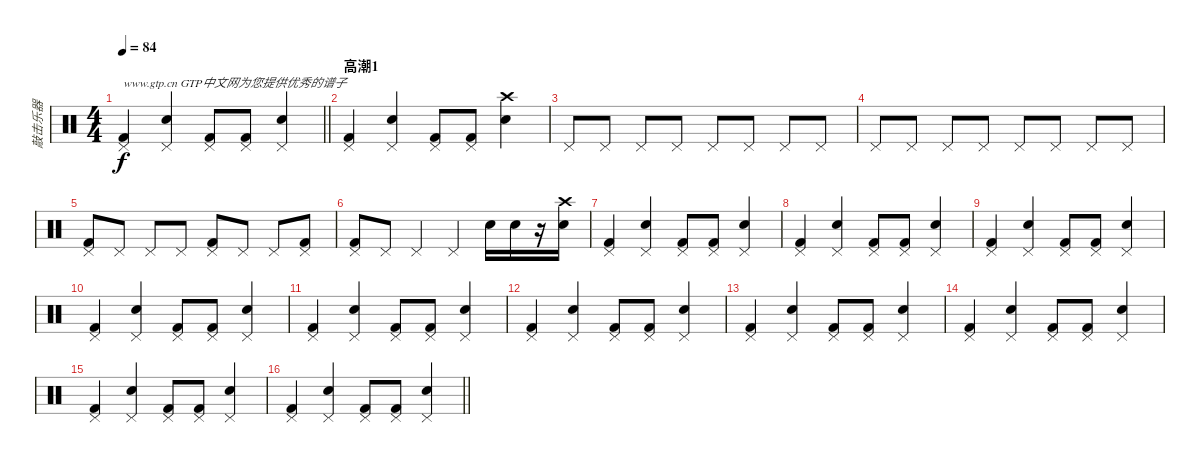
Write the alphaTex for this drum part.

\track ("敲击乐器" "敲击乐器") {instrument percussion}
\staff {score}
\articulation defaults
\ts (4 4)
\tempo 84
\clef neutral
\barLineRight lightlight
\ks c
("Kick (hit) 2" "Pedal Hi-Hat (hit)").4{txt "www.gtp.cn GTP中文网为您提供优秀的谱子" dy f} ("Snare (hit) 2" "Pedal Hi-Hat (hit)").4 ("Kick (hit) 2" "Pedal Hi-Hat (hit)").8 ("Kick (hit) 2" "Pedal Hi-Hat (hit)").8 ("Snare (hit) 2" "Pedal Hi-Hat (hit)").4 |
\section ("" "高潮1")
("Kick (hit) 2" "Pedal Hi-Hat (hit)").4 ("Snare (hit) 2" "Pedal Hi-Hat (hit)").4 ("Kick (hit) 2" "Pedal Hi-Hat (hit)").8 ("Kick (hit) 2" "Pedal Hi-Hat (hit)").8 ("Snare (hit) 2" "Crash high (hit)").4 |
"Pedal Hi-Hat (hit)".8 "Pedal Hi-Hat (hit)".8 "Pedal Hi-Hat (hit)".8 "Pedal Hi-Hat (hit)".8 "Pedal Hi-Hat (hit)".8 "Pedal Hi-Hat (hit)".8 "Pedal Hi-Hat (hit)".8 "Pedal Hi-Hat (hit)".8 |
"Pedal Hi-Hat (hit)".8 "Pedal Hi-Hat (hit)".8 "Pedal Hi-Hat (hit)".8 "Pedal Hi-Hat (hit)".8 "Pedal Hi-Hat (hit)".8 "Pedal Hi-Hat (hit)".8 "Pedal Hi-Hat (hit)".8 "Pedal Hi-Hat (hit)".8 |
("Kick (hit) 2" "Pedal Hi-Hat (hit)").8 "Pedal Hi-Hat (hit)".8 "Pedal Hi-Hat (hit)".8 "Pedal Hi-Hat (hit)".8 ("Kick (hit) 2" "Pedal Hi-Hat (hit)").8 "Pedal Hi-Hat (hit)".8 "Pedal Hi-Hat (hit)".8 ("Kick (hit) 2" "Pedal Hi-Hat (hit)").8 |
("Kick (hit) 2" "Pedal Hi-Hat (hit)").8 "Pedal Hi-Hat (hit)".8 "Pedal Hi-Hat (hit)".4 "Pedal Hi-Hat (hit)".4 "Snare (hit) 2".16 "Snare (hit) 2".16 r.16 ("Snare (hit) 2" "Crash high (hit)").16 |
("Kick (hit) 2" "Pedal Hi-Hat (hit)").4 ("Snare (hit) 2" "Pedal Hi-Hat (hit)").4 ("Kick (hit) 2" "Pedal Hi-Hat (hit)").8 ("Kick (hit) 2" "Pedal Hi-Hat (hit)").8 ("Snare (hit) 2" "Pedal Hi-Hat (hit)").4 |
("Kick (hit) 2" "Pedal Hi-Hat (hit)").4 ("Snare (hit) 2" "Pedal Hi-Hat (hit)").4 ("Kick (hit) 2" "Pedal Hi-Hat (hit)").8 ("Kick (hit) 2" "Pedal Hi-Hat (hit)").8 ("Snare (hit) 2" "Pedal Hi-Hat (hit)").4 |
("Kick (hit) 2" "Pedal Hi-Hat (hit)").4 ("Snare (hit) 2" "Pedal Hi-Hat (hit)").4 ("Kick (hit) 2" "Pedal Hi-Hat (hit)").8 ("Kick (hit) 2" "Pedal Hi-Hat (hit)").8 ("Snare (hit) 2" "Pedal Hi-Hat (hit)").4 |
("Kick (hit) 2" "Pedal Hi-Hat (hit)").4 ("Snare (hit) 2" "Pedal Hi-Hat (hit)").4 ("Kick (hit) 2" "Pedal Hi-Hat (hit)").8 ("Kick (hit) 2" "Pedal Hi-Hat (hit)").8 ("Snare (hit) 2" "Pedal Hi-Hat (hit)").4 |
("Kick (hit) 2" "Pedal Hi-Hat (hit)").4 ("Snare (hit) 2" "Pedal Hi-Hat (hit)").4 ("Kick (hit) 2" "Pedal Hi-Hat (hit)").8 ("Kick (hit) 2" "Pedal Hi-Hat (hit)").8 ("Snare (hit) 2" "Pedal Hi-Hat (hit)").4 |
("Kick (hit) 2" "Pedal Hi-Hat (hit)").4 ("Snare (hit) 2" "Pedal Hi-Hat (hit)").4 ("Kick (hit) 2" "Pedal Hi-Hat (hit)").8 ("Kick (hit) 2" "Pedal Hi-Hat (hit)").8 ("Snare (hit) 2" "Pedal Hi-Hat (hit)").4 |
("Kick (hit) 2" "Pedal Hi-Hat (hit)").4 ("Snare (hit) 2" "Pedal Hi-Hat (hit)").4 ("Kick (hit) 2" "Pedal Hi-Hat (hit)").8 ("Kick (hit) 2" "Pedal Hi-Hat (hit)").8 ("Snare (hit) 2" "Pedal Hi-Hat (hit)").4 |
("Kick (hit) 2" "Pedal Hi-Hat (hit)").4 ("Snare (hit) 2" "Pedal Hi-Hat (hit)").4 ("Kick (hit) 2" "Pedal Hi-Hat (hit)").8 ("Kick (hit) 2" "Pedal Hi-Hat (hit)").8 ("Snare (hit) 2" "Pedal Hi-Hat (hit)").4 |
("Kick (hit) 2" "Pedal Hi-Hat (hit)").4 ("Snare (hit) 2" "Pedal Hi-Hat (hit)").4 ("Kick (hit) 2" "Pedal Hi-Hat (hit)").8 ("Kick (hit) 2" "Pedal Hi-Hat (hit)").8 ("Snare (hit) 2" "Pedal Hi-Hat (hit)").4 |
\barLineRight lightlight
("Kick (hit) 2" "Pedal Hi-Hat (hit)").4 ("Snare (hit) 2" "Pedal Hi-Hat (hit)").4 ("Kick (hit) 2" "Pedal Hi-Hat (hit)").8 ("Kick (hit) 2" "Pedal Hi-Hat (hit)").8 ("Snare (hit) 2" "Pedal Hi-Hat (hit)").4
